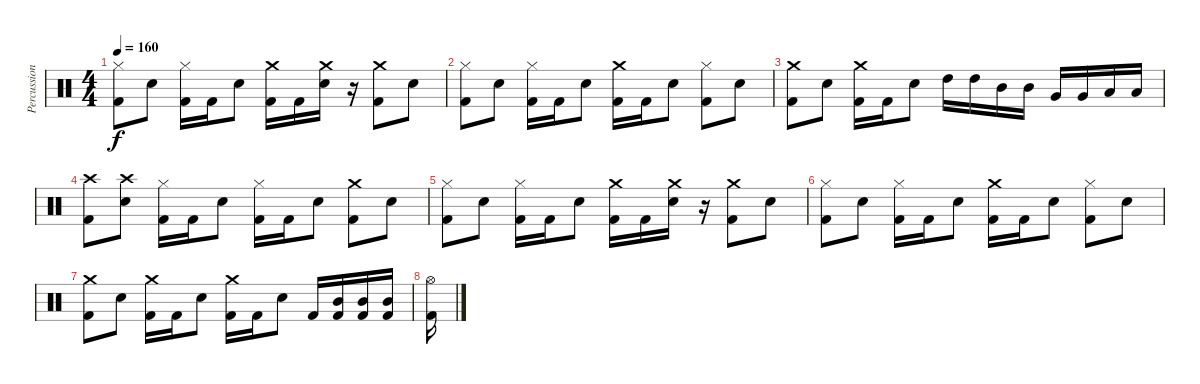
\track ("Percussion" "Percussion") {instrument percussion}
\staff {score}
\articulation defaults
\ts (4 4)
\tempo 160
\clef neutral
\ks c
("Hi-Hat (closed)" "Kick (hit) 2").8{dy f} "Electric Snare (hit)".8 ("Hi-Hat (closed)" "Kick (hit) 2").16 "Kick (hit) 2".16 "Electric Snare (hit)".8 ("Crash medium (hit)" "Kick (hit) 2").16 "Kick (hit) 2".16 ("Crash medium (hit)" "Electric Snare (hit)").16 r.16 ("Crash medium (hit)" "Kick (hit) 2").8 "Electric Snare (hit)".8 |
("Hi-Hat (closed)" "Kick (hit) 2").8 "Electric Snare (hit)".8 ("Hi-Hat (closed)" "Kick (hit) 2").16 "Kick (hit) 2".16 "Electric Snare (hit)".8 ("Crash medium (hit)" "Kick (hit) 2").16 "Kick (hit) 2".16 "Electric Snare (hit)".8 ("Hi-Hat (closed)" "Kick (hit) 2").8 "Electric Snare (hit)".8 |
("Crash medium (hit)" "Kick (hit) 2").8 "Electric Snare (hit)".8 ("Crash medium (hit)" "Kick (hit) 2").16 "Kick (hit) 2".16 "Electric Snare (hit)".8 "High Tom (hit)".16 "High Tom (hit)".16 "Mid Tom (hit)".16 "Mid Tom (hit)".16 "Very Low Tom (hit)".16 "Very Low Tom (hit)".16 "Low Floor Tom (hit)".16 "Low Floor Tom (hit)".16 |
("Crash high (hit)" "Kick (hit) 2").8 ("Crash high (hit)" "Electric Snare (hit)").8 ("Hi-Hat (closed)" "Kick (hit) 2").16 "Kick (hit) 2".16 "Electric Snare (hit)".8 ("Hi-Hat (closed)" "Kick (hit) 2").16 "Kick (hit) 2".16 "Electric Snare (hit)".8 ("Crash medium (hit)" "Kick (hit) 2").8 "Electric Snare (hit)".8 |
("Hi-Hat (closed)" "Kick (hit) 2").8 "Electric Snare (hit)".8 ("Hi-Hat (closed)" "Kick (hit) 2").16 "Kick (hit) 2".16 "Electric Snare (hit)".8 ("Crash medium (hit)" "Kick (hit) 2").16 "Kick (hit) 2".16 ("Crash medium (hit)" "Electric Snare (hit)").16 r.16 ("Crash medium (hit)" "Kick (hit) 2").8 "Electric Snare (hit)".8 |
("Hi-Hat (closed)" "Kick (hit) 2").8 "Electric Snare (hit)".8 ("Hi-Hat (closed)" "Kick (hit) 2").16 "Kick (hit) 2".16 "Electric Snare (hit)".8 ("Crash medium (hit)" "Kick (hit) 2").16 "Kick (hit) 2".16 "Electric Snare (hit)".8 ("Hi-Hat (closed)" "Kick (hit) 2").8 "Electric Snare (hit)".8 |
("Crash medium (hit)" "Kick (hit) 2").8 "Electric Snare (hit)".8 ("Crash medium (hit)" "Kick (hit) 2").16 "Kick (hit) 2".16 "Electric Snare (hit)".8 ("Crash medium (hit)" "Kick (hit) 2").16 "Kick (hit) 2".16 "Electric Snare (hit)".8 "Kick (hit) 2".16 ("Mid Tom (hit)" "Kick (hit) 2").16 ("Mid Tom (hit)" "Kick (hit) 2").16 ("Mid Tom (hit)" "Kick (hit) 2").16 |
("Hi-Hat (open)" "Kick (hit) 2").16
